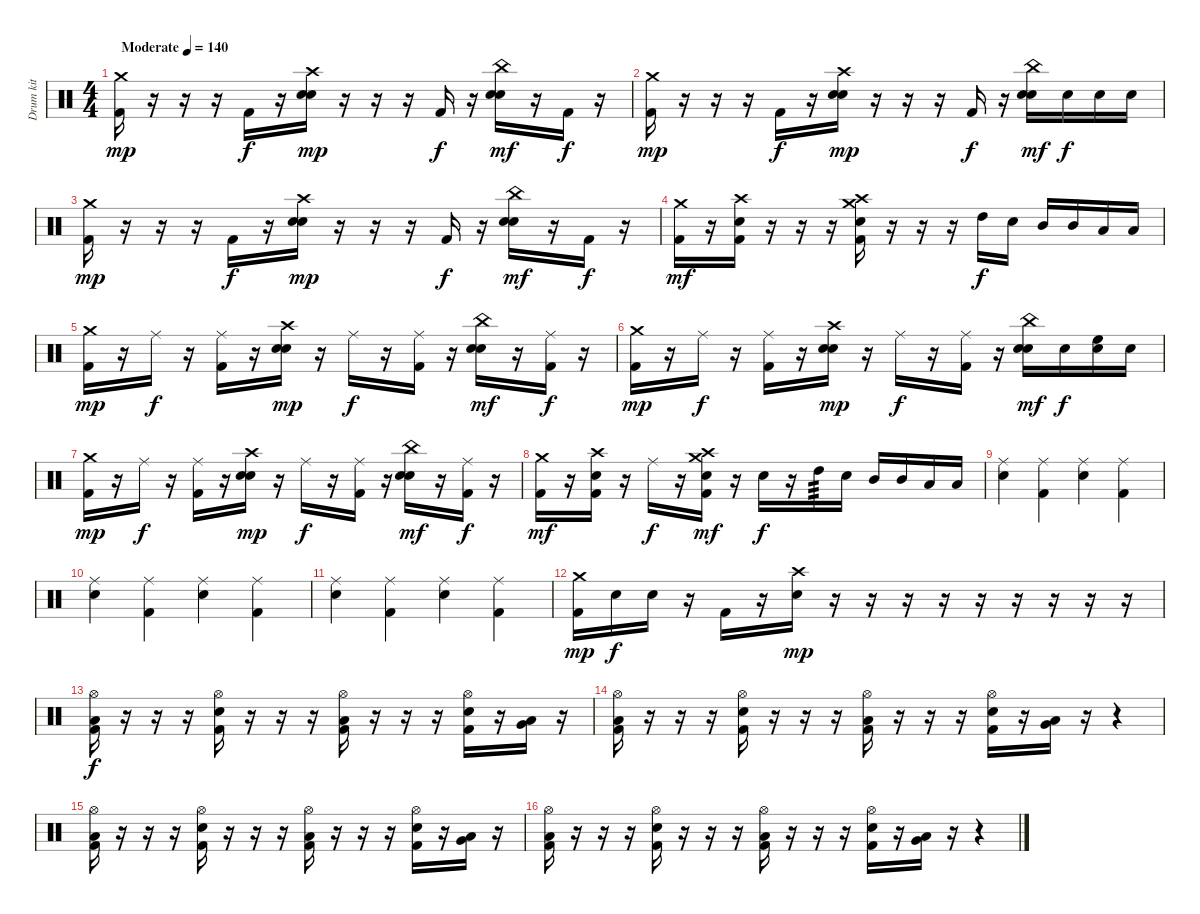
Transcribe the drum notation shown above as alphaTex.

\track ("Drum kit" "Drum kit") {solo instrument percussion}
\staff {score}
\articulation defaults
\ts (4 4)
\tempo (140 "Moderate")
\clef neutral
\ks c
("Crash medium (hit)" "Kick (hit) 2").16{dy mp} r.16 r.16 r.16 "Kick (hit) 2".16{dy f} r.16 ("Crash high (hit)" "Electric Snare (hit)" "Snare (hit)").16{dy mp} r.16 r.16 r.16 "Kick (hit) 2".16{dy f} r.16 ("China (hit)" "Electric Snare (hit)" "Snare (hit)").16{dy mf} r.16 "Kick (hit) 2".16{dy f} r.16 |
("Crash medium (hit)" "Kick (hit) 2").16{dy mp} r.16 r.16 r.16 "Kick (hit) 2".16{dy f} r.16 ("Crash high (hit)" "Electric Snare (hit)" "Snare (hit)").16{dy mp} r.16 r.16 r.16 "Kick (hit) 2".16{dy f} r.16 ("China (hit)" "Electric Snare (hit)" "Snare (hit)").16{dy mf} "Electric Snare (hit)".16{dy f} "Electric Snare (hit)".16 "Snare (hit)".16 |
("Crash medium (hit)" "Kick (hit) 2").16{dy mp} r.16 r.16 r.16 "Kick (hit) 2".16{dy f} r.16 ("Crash high (hit)" "Electric Snare (hit)" "Snare (hit)").16{dy mp} r.16 r.16 r.16 "Kick (hit) 2".16{dy f} r.16 ("China (hit)" "Electric Snare (hit)" "Snare (hit)").16{dy mf} r.16 "Kick (hit) 2".16{dy f} r.16 |
("Crash medium (hit)" "Kick (hit) 2").16{dy mf} r.16 ("Crash high (hit)" "Electric Snare (hit)" "Kick (hit) 2").16 r.16 r.16 r.16 ("Crash medium (hit)" "Crash high (hit)" "Snare (hit)" "Kick (hit) 2").16 r.16 r.16 r.16 "High Tom (hit)".16{dy f} "Snare (hit)".16 "Mid Tom (hit)".16 "Mid Tom (hit)".16 "Low Tom (hit)".16 "Low Tom (hit)".16 |
("Crash medium (hit)" "Kick (hit) 2").16{dy mp} r.16 "Ride (middle)".16{dy f} r.16 ("Ride (middle)" "Kick (hit) 2").16 r.16 ("Crash high (hit)" "Electric Snare (hit)" "Snare (hit)").16{dy mp} r.16 "Ride (middle)".16{dy f} r.16 ("Ride (middle)" "Kick (hit) 2").16 r.16 ("China (hit)" "Electric Snare (hit)" "Snare (hit)").16{dy mf} r.16 ("Ride (middle)" "Kick (hit) 2").16{dy f} r.16 |
("Crash medium (hit)" "Kick (hit) 2").16{dy mp} r.16 "Ride (middle)".16{dy f} r.16 ("Ride (middle)" "Kick (hit) 2").16 r.16 ("Crash high (hit)" "Electric Snare (hit)" "Snare (hit)").16{dy mp} r.16 "Ride (middle)".16{dy f} r.16 ("Ride (middle)" "Kick (hit) 2").16 r.16 ("China (hit)" "Electric Snare (hit)" "Snare (hit)").16{dy mf} "Electric Snare (hit)".16{dy f} ("High Floor Tom (hit)" "Electric Snare (hit)").16 "Snare (hit)".16 |
("Crash medium (hit)" "Kick (hit) 2").16{dy mp} r.16 "Ride (middle)".16{dy f} r.16 ("Ride (middle)" "Kick (hit) 2").16 r.16 ("Crash high (hit)" "Electric Snare (hit)" "Snare (hit)").16{dy mp} r.16 "Ride (middle)".16{dy f} r.16 ("Ride (middle)" "Kick (hit) 2").16 r.16 ("China (hit)" "Electric Snare (hit)" "Snare (hit)").16{dy mf} r.16 ("Ride (middle)" "Kick (hit) 2").16{dy f} r.16 |
("Crash medium (hit)" "Kick (hit) 2").16{dy mf} r.16 ("Crash high (hit)" "Electric Snare (hit)" "Kick (hit) 2").16 r.16 "Ride (middle)".16{dy f} r.16 ("Crash medium (hit)" "Crash high (hit)" "Snare (hit)" "Kick (hit) 2").16{dy mf} r.16 "Electric Snare (hit)".16{dy f} r.16 "High Tom (hit)".16{tp 3} "Snare (hit)".16 "Mid Tom (hit)".16 "Mid Tom (hit)".16 "Low Tom (hit)".16 "Low Tom (hit)".16 |
("Ride (middle)" "Snare (hit)").4 ("Ride (middle)" "Kick (hit) 2").4 ("Ride (middle)" "Snare (hit)").4 ("Ride (middle)" "Kick (hit) 2").4 |
("Ride (middle)" "Snare (hit)").4 ("Ride (middle)" "Kick (hit) 2").4 ("Ride (middle)" "Snare (hit)").4 ("Ride (middle)" "Kick (hit) 2").4 |
("Ride (middle)" "Snare (hit)").4 ("Ride (middle)" "Kick (hit) 2").4 ("Ride (middle)" "Snare (hit)").4 ("Ride (middle)" "Kick (hit) 2").4 |
("Crash medium (hit)" "Kick (hit) 2").16{dy mp} "Snare (hit)".16{dy f} "Electric Snare (hit)".16 r.16 "Kick (hit) 2".16 r.16 ("Crash high (hit)" "Electric Snare (hit)").16{dy mp} r.16 r.16 r.16 r.16 r.16 r.16 r.16 r.16 r.16 |
("Hi-Hat (open)" "Low Tom (hit)" "Kick (hit) 2").16{dy f} r.16 r.16 r.16 ("Hi-Hat (open)" "Electric Snare (hit)" "Kick (hit) 2").16 r.16 r.16 r.16 ("Hi-Hat (open)" "Low Tom (hit)" "Kick (hit) 2").16 r.16 r.16 r.16 ("Hi-Hat (open)" "Electric Snare (hit)" "Kick (hit) 2").16 r.16 ("Low Tom (hit)" "Very Low Tom (hit)").16 r.16 |
("Hi-Hat (open)" "Low Tom (hit)" "Kick (hit) 2").16 r.16 r.16 r.16 ("Hi-Hat (open)" "Electric Snare (hit)" "Kick (hit) 2").16 r.16 r.16 r.16 ("Hi-Hat (open)" "Low Tom (hit)" "Kick (hit) 2").16 r.16 r.16 r.16 ("Hi-Hat (open)" "Electric Snare (hit)" "Kick (hit) 2").16 r.16 ("Low Tom (hit)" "Very Low Tom (hit)").16 r.16 r.4 |
("Hi-Hat (open)" "Low Tom (hit)" "Kick (hit) 2").16 r.16 r.16 r.16 ("Hi-Hat (open)" "Electric Snare (hit)" "Kick (hit) 2").16 r.16 r.16 r.16 ("Hi-Hat (open)" "Low Tom (hit)" "Kick (hit) 2").16 r.16 r.16 r.16 ("Hi-Hat (open)" "Electric Snare (hit)" "Kick (hit) 2").16 r.16 ("Low Tom (hit)" "Very Low Tom (hit)").16 r.16 |
("Hi-Hat (open)" "Low Tom (hit)" "Kick (hit) 2").16 r.16 r.16 r.16 ("Hi-Hat (open)" "Electric Snare (hit)" "Kick (hit) 2").16 r.16 r.16 r.16 ("Hi-Hat (open)" "Low Tom (hit)" "Kick (hit) 2").16 r.16 r.16 r.16 ("Hi-Hat (open)" "Electric Snare (hit)" "Kick (hit) 2").16 r.16 ("Low Tom (hit)" "Very Low Tom (hit)").16 r.16 r.4
